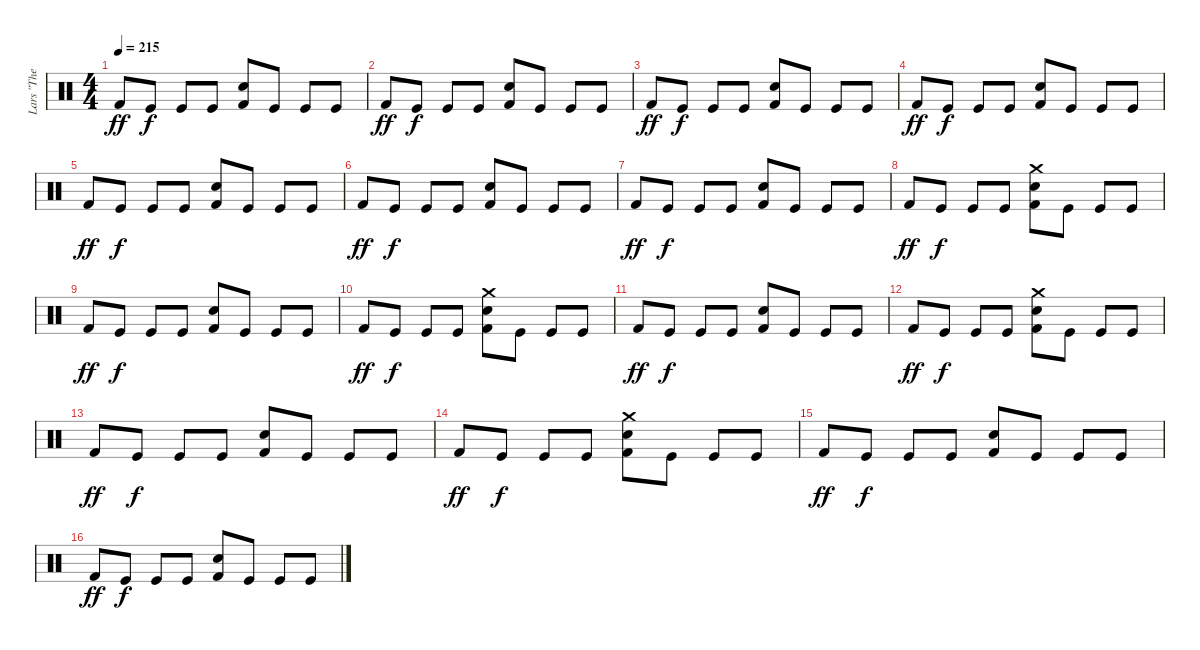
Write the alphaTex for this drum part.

\track ("Lars \"The Antichrist\" Ulrich" "Lars \"The ") {instrument percussion}
\staff {score}
\articulation defaults
\ts (4 4)
\tempo 215
\clef neutral
\ks c "Kick (hit) 2".8{dy ff} "Kick (hit)".8{dy f} "Kick (hit)".8 "Kick (hit)".8
("Electric Snare (hit)" "Kick (hit) 2").8 "Kick (hit)".8 "Kick (hit)".8 "Kick (hit)".8 |
"Kick (hit) 2".8{dy ff} "Kick (hit)".8{dy f} "Kick (hit)".8 "Kick (hit)".8 ("Electric Snare (hit)" "Kick (hit) 2").8 "Kick (hit)".8 "Kick (hit)".8 "Kick (hit)".8 |
"Kick (hit) 2".8{dy ff} "Kick (hit)".8{dy f} "Kick (hit)".8 "Kick (hit)".8 ("Electric Snare (hit)" "Kick (hit) 2").8 "Kick (hit)".8 "Kick (hit)".8 "Kick (hit)".8 |
"Kick (hit) 2".8{dy ff} "Kick (hit)".8{dy f} "Kick (hit)".8 "Kick (hit)".8 ("Electric Snare (hit)" "Kick (hit) 2").8 "Kick (hit)".8 "Kick (hit)".8 "Kick (hit)".8 |
"Kick (hit) 2".8{dy ff} "Kick (hit)".8{dy f} "Kick (hit)".8 "Kick (hit)".8 ("Electric Snare (hit)" "Kick (hit) 2").8 "Kick (hit)".8 "Kick (hit)".8 "Kick (hit)".8 |
"Kick (hit) 2".8{dy ff} "Kick (hit)".8{dy f} "Kick (hit)".8 "Kick (hit)".8 ("Electric Snare (hit)" "Kick (hit) 2").8 "Kick (hit)".8 "Kick (hit)".8 "Kick (hit)".8 |
"Kick (hit) 2".8{dy ff} "Kick (hit)".8{dy f} "Kick (hit)".8 "Kick (hit)".8 ("Electric Snare (hit)" "Kick (hit) 2").8 "Kick (hit)".8 "Kick (hit)".8 "Kick (hit)".8 |
"Kick (hit) 2".8{dy ff} "Kick (hit)".8{dy f} "Kick (hit)".8 "Kick (hit)".8 ("Crash medium (hit)" "Electric Snare (hit)" "Kick (hit) 2").8 "Kick (hit)".8 "Kick (hit)".8 "Kick (hit)".8 |
"Kick (hit) 2".8{dy ff} "Kick (hit)".8{dy f} "Kick (hit)".8 "Kick (hit)".8 ("Electric Snare (hit)" "Kick (hit) 2").8 "Kick (hit)".8 "Kick (hit)".8 "Kick (hit)".8 |
"Kick (hit) 2".8{dy ff} "Kick (hit)".8{dy f} "Kick (hit)".8 "Kick (hit)".8 ("Crash medium (hit)" "Electric Snare (hit)" "Kick (hit) 2").8 "Kick (hit)".8 "Kick (hit)".8 "Kick (hit)".8 |
"Kick (hit) 2".8{dy ff} "Kick (hit)".8{dy f} "Kick (hit)".8 "Kick (hit)".8 ("Electric Snare (hit)" "Kick (hit) 2").8 "Kick (hit)".8 "Kick (hit)".8 "Kick (hit)".8 |
"Kick (hit) 2".8{dy ff} "Kick (hit)".8{dy f} "Kick (hit)".8 "Kick (hit)".8 ("Crash medium (hit)" "Electric Snare (hit)" "Kick (hit) 2").8 "Kick (hit)".8 "Kick (hit)".8 "Kick (hit)".8 |
"Kick (hit) 2".8{dy ff} "Kick (hit)".8{dy f} "Kick (hit)".8 "Kick (hit)".8 ("Electric Snare (hit)" "Kick (hit) 2").8 "Kick (hit)".8 "Kick (hit)".8 "Kick (hit)".8 |
"Kick (hit) 2".8{dy ff} "Kick (hit)".8{dy f} "Kick (hit)".8 "Kick (hit)".8 ("Crash medium (hit)" "Electric Snare (hit)" "Kick (hit) 2").8 "Kick (hit)".8 "Kick (hit)".8 "Kick (hit)".8 |
"Kick (hit) 2".8{dy ff} "Kick (hit)".8{dy f} "Kick (hit)".8 "Kick (hit)".8 ("Electric Snare (hit)" "Kick (hit) 2").8 "Kick (hit)".8 "Kick (hit)".8 "Kick (hit)".8 |
"Kick (hit) 2".8{dy ff} "Kick (hit)".8{dy f} "Kick (hit)".8 "Kick (hit)".8 ("Electric Snare (hit)" "Kick (hit) 2").8 "Kick (hit)".8 "Kick (hit)".8 "Kick (hit)".8
